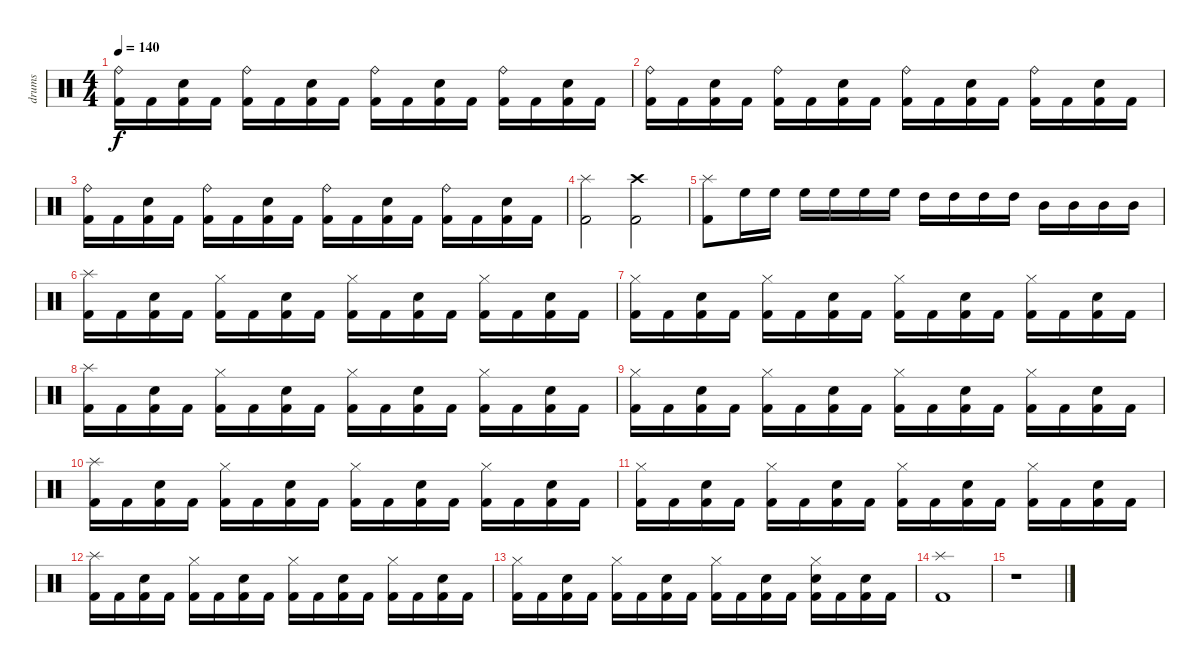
\track ("drums" "drums") {instrument percussion}
\staff {score}
\articulation defaults
\ts (4 4)
\tempo 140
\clef neutral
\ks c
("Ride (bell)" "Kick (hit) 2").16{dy f} "Kick (hit) 2".16 ("Electric Snare (hit)" "Kick (hit) 2").16 "Kick (hit) 2".16 ("Ride (bell)" "Kick (hit) 2").16 "Kick (hit) 2".16 ("Electric Snare (hit)" "Kick (hit) 2").16 "Kick (hit) 2".16 ("Ride (bell)" "Kick (hit) 2").16 "Kick (hit) 2".16 ("Electric Snare (hit)" "Kick (hit) 2").16 "Kick (hit) 2".16 ("Ride (bell)" "Kick (hit) 2").16 "Kick (hit) 2".16 ("Electric Snare (hit)" "Kick (hit) 2").16 "Kick (hit) 2".16 |
("Ride (bell)" "Kick (hit) 2").16 "Kick (hit) 2".16 ("Electric Snare (hit)" "Kick (hit) 2").16 "Kick (hit) 2".16 ("Ride (bell)" "Kick (hit) 2").16 "Kick (hit) 2".16 ("Electric Snare (hit)" "Kick (hit) 2").16 "Kick (hit) 2".16 ("Ride (bell)" "Kick (hit) 2").16 "Kick (hit) 2".16 ("Electric Snare (hit)" "Kick (hit) 2").16 "Kick (hit) 2".16 ("Ride (bell)" "Kick (hit) 2").16 "Kick (hit) 2".16 ("Electric Snare (hit)" "Kick (hit) 2").16 "Kick (hit) 2".16 |
("Ride (bell)" "Kick (hit) 2").16 "Kick (hit) 2".16 ("Electric Snare (hit)" "Kick (hit) 2").16 "Kick (hit) 2".16 ("Ride (bell)" "Kick (hit) 2").16 "Kick (hit) 2".16 ("Electric Snare (hit)" "Kick (hit) 2").16 "Kick (hit) 2".16 ("Ride (bell)" "Kick (hit) 2").16 "Kick (hit) 2".16 ("Electric Snare (hit)" "Kick (hit) 2").16 "Kick (hit) 2".16 ("Ride (bell)" "Kick (hit) 2").16 "Kick (hit) 2".16 ("Electric Snare (hit)" "Kick (hit) 2").16 "Kick (hit) 2".16 |
("Splash (hit)" "Kick (hit) 2").2 ("Crash high (hit)" "Kick (hit) 2").2 |
("Splash (hit)" "Kick (hit) 2").8 "High Floor Tom (hit)".16 "High Floor Tom (hit)".16 "High Floor Tom (hit)".16 "High Floor Tom (hit)".16 "High Floor Tom (hit)".16 "High Floor Tom (hit)".16 "High Tom (hit)".16 "High Tom (hit)".16 "High Tom (hit)".16 "High Tom (hit)".16 "Mid Tom (hit)".16 "Mid Tom (hit)".16 "Mid Tom (hit)".16 "Mid Tom (hit)".16 |
("Splash (hit)" "Kick (hit) 2").16 "Kick (hit) 2".16 ("Electric Snare (hit)" "Kick (hit) 2").16 "Kick (hit) 2".16 ("Hi-Hat (closed)" "Kick (hit) 2").16 "Kick (hit) 2".16 ("Electric Snare (hit)" "Kick (hit) 2").16 "Kick (hit) 2".16 ("Hi-Hat (closed)" "Kick (hit) 2").16 "Kick (hit) 2".16 ("Electric Snare (hit)" "Kick (hit) 2").16 "Kick (hit) 2".16 ("Hi-Hat (closed)" "Kick (hit) 2").16 "Kick (hit) 2".16 ("Electric Snare (hit)" "Kick (hit) 2").16 "Kick (hit) 2".16 |
("Hi-Hat (closed)" "Kick (hit) 2").16 "Kick (hit) 2".16 ("Electric Snare (hit)" "Kick (hit) 2").16 "Kick (hit) 2".16 ("Hi-Hat (closed)" "Kick (hit) 2").16 "Kick (hit) 2".16 ("Electric Snare (hit)" "Kick (hit) 2").16 "Kick (hit) 2".16 ("Hi-Hat (closed)" "Kick (hit) 2").16 "Kick (hit) 2".16 ("Electric Snare (hit)" "Kick (hit) 2").16 "Kick (hit) 2".16 ("Hi-Hat (closed)" "Kick (hit) 2").16 "Kick (hit) 2".16 ("Electric Snare (hit)" "Kick (hit) 2").16 "Kick (hit) 2".16 |
("Splash (hit)" "Kick (hit) 2").16 "Kick (hit) 2".16 ("Electric Snare (hit)" "Kick (hit) 2").16 "Kick (hit) 2".16 ("Hi-Hat (closed)" "Kick (hit) 2").16 "Kick (hit) 2".16 ("Electric Snare (hit)" "Kick (hit) 2").16 "Kick (hit) 2".16 ("Hi-Hat (closed)" "Kick (hit) 2").16 "Kick (hit) 2".16 ("Electric Snare (hit)" "Kick (hit) 2").16 "Kick (hit) 2".16 ("Hi-Hat (closed)" "Kick (hit) 2").16 "Kick (hit) 2".16 ("Electric Snare (hit)" "Kick (hit) 2").16 "Kick (hit) 2".16 |
("Hi-Hat (closed)" "Kick (hit) 2").16 "Kick (hit) 2".16 ("Electric Snare (hit)" "Kick (hit) 2").16 "Kick (hit) 2".16 ("Hi-Hat (closed)" "Kick (hit) 2").16 "Kick (hit) 2".16 ("Electric Snare (hit)" "Kick (hit) 2").16 "Kick (hit) 2".16 ("Hi-Hat (closed)" "Kick (hit) 2").16 "Kick (hit) 2".16 ("Electric Snare (hit)" "Kick (hit) 2").16 "Kick (hit) 2".16 ("Hi-Hat (closed)" "Kick (hit) 2").16 "Kick (hit) 2".16 ("Electric Snare (hit)" "Kick (hit) 2").16 "Kick (hit) 2".16 |
("Splash (hit)" "Kick (hit) 2").16 "Kick (hit) 2".16 ("Electric Snare (hit)" "Kick (hit) 2").16 "Kick (hit) 2".16 ("Hi-Hat (closed)" "Kick (hit) 2").16 "Kick (hit) 2".16 ("Electric Snare (hit)" "Kick (hit) 2").16 "Kick (hit) 2".16 ("Hi-Hat (closed)" "Kick (hit) 2").16 "Kick (hit) 2".16 ("Electric Snare (hit)" "Kick (hit) 2").16 "Kick (hit) 2".16 ("Hi-Hat (closed)" "Kick (hit) 2").16 "Kick (hit) 2".16 ("Electric Snare (hit)" "Kick (hit) 2").16 "Kick (hit) 2".16 |
("Hi-Hat (closed)" "Kick (hit) 2").16 "Kick (hit) 2".16 ("Electric Snare (hit)" "Kick (hit) 2").16 "Kick (hit) 2".16 ("Hi-Hat (closed)" "Kick (hit) 2").16 "Kick (hit) 2".16 ("Electric Snare (hit)" "Kick (hit) 2").16 "Kick (hit) 2".16 ("Hi-Hat (closed)" "Kick (hit) 2").16 "Kick (hit) 2".16 ("Electric Snare (hit)" "Kick (hit) 2").16 "Kick (hit) 2".16 ("Hi-Hat (closed)" "Kick (hit) 2").16 "Kick (hit) 2".16 ("Electric Snare (hit)" "Kick (hit) 2").16 "Kick (hit) 2".16 |
("Splash (hit)" "Kick (hit) 2").16 "Kick (hit) 2".16 ("Electric Snare (hit)" "Kick (hit) 2").16 "Kick (hit) 2".16 ("Hi-Hat (closed)" "Kick (hit) 2").16 "Kick (hit) 2".16 ("Electric Snare (hit)" "Kick (hit) 2").16 "Kick (hit) 2".16 ("Hi-Hat (closed)" "Kick (hit) 2").16 "Kick (hit) 2".16 ("Electric Snare (hit)" "Kick (hit) 2").16 "Kick (hit) 2".16 ("Hi-Hat (closed)" "Kick (hit) 2").16 "Kick (hit) 2".16 ("Electric Snare (hit)" "Kick (hit) 2").16 "Kick (hit) 2".16 |
("Hi-Hat (closed)" "Kick (hit) 2").16 "Kick (hit) 2".16 ("Electric Snare (hit)" "Kick (hit) 2").16 "Kick (hit) 2".16 ("Hi-Hat (closed)" "Kick (hit) 2").16 "Kick (hit) 2".16 ("Electric Snare (hit)" "Kick (hit) 2").16 "Kick (hit) 2".16 ("Hi-Hat (closed)" "Kick (hit) 2").16 "Kick (hit) 2".16 ("Electric Snare (hit)" "Kick (hit) 2").16 "Kick (hit) 2".16 ("Hi-Hat (closed)" "Electric Snare (hit)" "Kick (hit) 2").16 "Kick (hit) 2".16 ("Electric Snare (hit)" "Kick (hit) 2").16 "Kick (hit) 2".16 |
("Splash (hit)" "Kick (hit) 2").1 |
r.1
